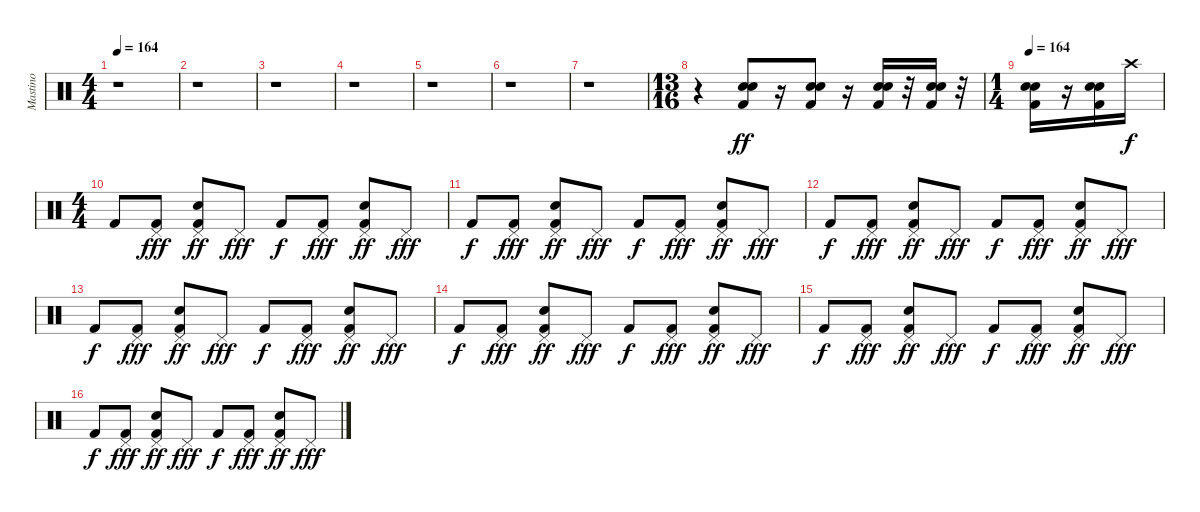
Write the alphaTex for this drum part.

\track ("Mastino" "Mastino") {instrument percussion}
\staff {score}
\articulation defaults
\ts (4 4)
\tempo 164
\tempo 115
\tempo 164
\clef neutral
\ks c
r.1{dy ff} |
r.1 |
r.1 |
r.1 |
r.1 |
r.1 |
r.1 |
\ts (13 16)
r.4 ("Snare (hit) 2" "Electric Snare (hit)" "Kick (hit) 2").8 r.16 ("Snare (hit) 2" "Electric Snare (hit)" "Kick (hit) 2").8 r.16 ("Snare (hit) 2" "Electric Snare (hit)" "Kick (hit) 2").16 r.32 ("Snare (hit) 2" "Electric Snare (hit)" "Kick (hit) 2").16 r.32 |
\ts (1 4)
\tempo 164
("Snare (hit) 2" "Electric Snare (hit)" "Kick (hit) 2").16 r.16 ("Snare (hit) 2" "Electric Snare (hit)" "Kick (hit) 2").16 "Crash high (hit)".16{dy f} |
\ts (4 4)
"Kick (hit) 2".8 ("Pedal Hi-Hat (hit)" "Kick (hit) 2").8{dy fff} ("Pedal Hi-Hat (hit)" "Electric Snare (hit)" "Kick (hit) 2").8{dy ff} "Pedal Hi-Hat (hit)".8{dy fff} "Kick (hit) 2".8{dy f} ("Pedal Hi-Hat (hit)" "Kick (hit) 2").8{dy fff} ("Pedal Hi-Hat (hit)" "Electric Snare (hit)" "Kick (hit) 2").8{dy ff} "Pedal Hi-Hat (hit)".8{dy fff} |
"Kick (hit) 2".8{dy f} ("Pedal Hi-Hat (hit)" "Kick (hit) 2").8{dy fff} ("Pedal Hi-Hat (hit)" "Electric Snare (hit)" "Kick (hit) 2").8{dy ff} "Pedal Hi-Hat (hit)".8{dy fff} "Kick (hit) 2".8{dy f} ("Pedal Hi-Hat (hit)" "Kick (hit) 2").8{dy fff} ("Pedal Hi-Hat (hit)" "Electric Snare (hit)" "Kick (hit) 2").8{dy ff} "Pedal Hi-Hat (hit)".8{dy fff} |
"Kick (hit) 2".8{dy f} ("Pedal Hi-Hat (hit)" "Kick (hit) 2").8{dy fff} ("Pedal Hi-Hat (hit)" "Electric Snare (hit)" "Kick (hit) 2").8{dy ff} "Pedal Hi-Hat (hit)".8{dy fff} "Kick (hit) 2".8{dy f} ("Pedal Hi-Hat (hit)" "Kick (hit) 2").8{dy fff} ("Pedal Hi-Hat (hit)" "Electric Snare (hit)" "Kick (hit) 2").8{dy ff} "Pedal Hi-Hat (hit)".8{dy fff} |
"Kick (hit) 2".8{dy f} ("Pedal Hi-Hat (hit)" "Kick (hit) 2").8{dy fff} ("Pedal Hi-Hat (hit)" "Electric Snare (hit)" "Kick (hit) 2").8{dy ff} "Pedal Hi-Hat (hit)".8{dy fff} "Kick (hit) 2".8{dy f} ("Pedal Hi-Hat (hit)" "Kick (hit) 2").8{dy fff} ("Pedal Hi-Hat (hit)" "Electric Snare (hit)" "Kick (hit) 2").8{dy ff} "Pedal Hi-Hat (hit)".8{dy fff} |
"Kick (hit) 2".8{dy f} ("Pedal Hi-Hat (hit)" "Kick (hit) 2").8{dy fff} ("Pedal Hi-Hat (hit)" "Electric Snare (hit)" "Kick (hit) 2").8{dy ff} "Pedal Hi-Hat (hit)".8{dy fff} "Kick (hit) 2".8{dy f} ("Pedal Hi-Hat (hit)" "Kick (hit) 2").8{dy fff} ("Pedal Hi-Hat (hit)" "Electric Snare (hit)" "Kick (hit) 2").8{dy ff} "Pedal Hi-Hat (hit)".8{dy fff} |
"Kick (hit) 2".8{dy f} ("Pedal Hi-Hat (hit)" "Kick (hit) 2").8{dy fff} ("Pedal Hi-Hat (hit)" "Electric Snare (hit)" "Kick (hit) 2").8{dy ff} "Pedal Hi-Hat (hit)".8{dy fff} "Kick (hit) 2".8{dy f} ("Pedal Hi-Hat (hit)" "Kick (hit) 2").8{dy fff} ("Pedal Hi-Hat (hit)" "Electric Snare (hit)" "Kick (hit) 2").8{dy ff} "Pedal Hi-Hat (hit)".8{dy fff} |
"Kick (hit) 2".8{dy f} ("Pedal Hi-Hat (hit)" "Kick (hit) 2").8{dy fff} ("Pedal Hi-Hat (hit)" "Electric Snare (hit)" "Kick (hit) 2").8{dy ff} "Pedal Hi-Hat (hit)".8{dy fff} "Kick (hit) 2".8{dy f} ("Pedal Hi-Hat (hit)" "Kick (hit) 2").8{dy fff} ("Pedal Hi-Hat (hit)" "Electric Snare (hit)" "Kick (hit) 2").8{dy ff} "Pedal Hi-Hat (hit)".8{dy fff}
